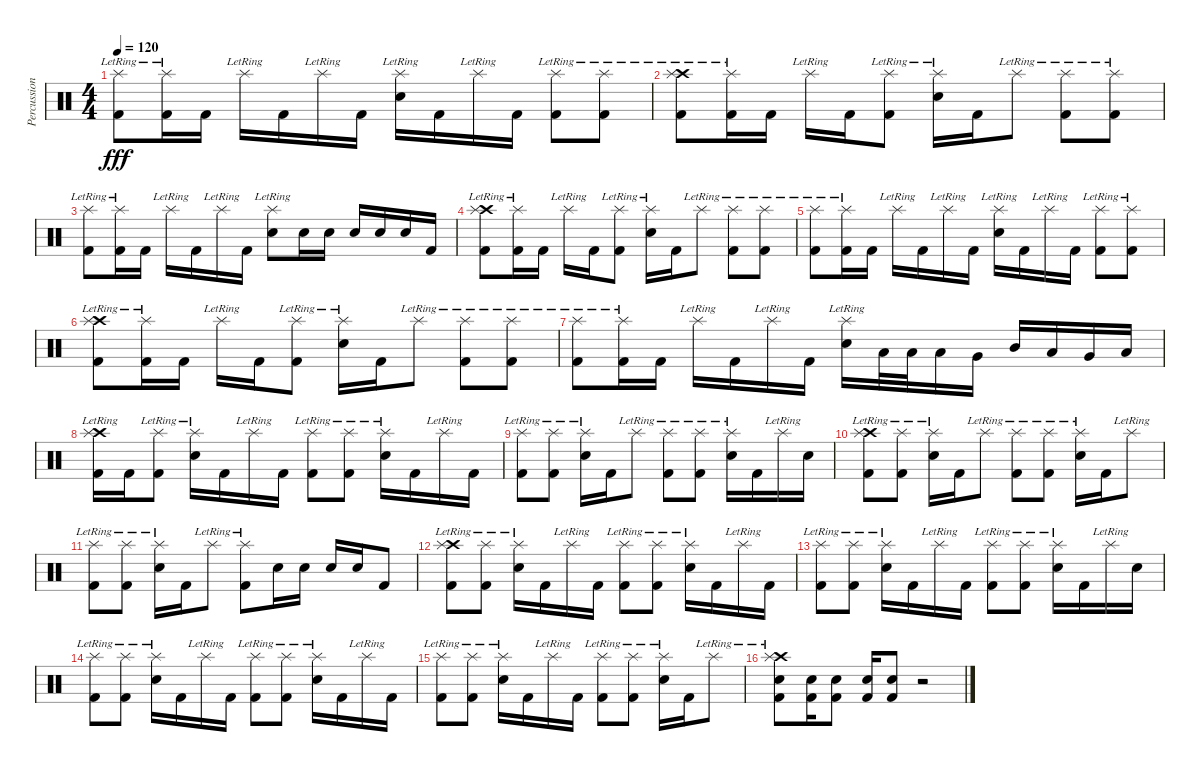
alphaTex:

\track ("Percussions" "Percussion") {instrument percussion}
\staff {score}
\articulation defaults
\ts (4 4)
\tempo 120
\clef neutral
\ks c
("Splash (hit)"{lr} "Kick (hit) 2").8{dy fff} ("Splash (hit)"{lr} "Kick (hit) 2").16 "Kick (hit) 2".16 "Splash (hit)"{lr}.16 "Kick (hit) 2".16 "Splash (hit)"{lr}.16 "Kick (hit) 2".16 ("Splash (hit)"{lr} "Electric Snare (hit)").16 "Kick (hit) 2".16 "Splash (hit)"{lr}.16 "Kick (hit) 2".16 ("Splash (hit)"{lr} "Kick (hit) 2").8 ("Splash (hit)"{lr} "Kick (hit) 2").8 |
("Crash high (hit)"{lr} "Splash (hit)"{lr} "Kick (hit) 2").8 ("Splash (hit)"{lr} "Kick (hit) 2").16 "Kick (hit) 2".16 "Splash (hit)"{lr}.16 "Kick (hit) 2".16 ("Splash (hit)"{lr} "Kick (hit) 2").8 ("Splash (hit)"{lr} "Electric Snare (hit)").16 "Kick (hit) 2".16 "Splash (hit)"{lr}.8 ("Splash (hit)"{lr} "Kick (hit) 2").8 ("Splash (hit)"{lr} "Kick (hit) 2").8 |
("Splash (hit)"{lr} "Kick (hit) 2").8 ("Splash (hit)"{lr} "Kick (hit) 2").16 "Kick (hit) 2".16 "Splash (hit)"{lr}.16 "Kick (hit) 2".16 "Splash (hit)"{lr}.16 "Kick (hit) 2".16 ("Splash (hit)"{lr} "Electric Snare (hit)").8 "Electric Snare (hit)".16 "Electric Snare (hit)".16 "Electric Snare (hit)".16 "Electric Snare (hit)".16 "Electric Snare (hit)".16 "Kick (hit) 2".16 |
("Crash high (hit)"{lr} "Splash (hit)"{lr} "Kick (hit) 2").8 ("Splash (hit)"{lr} "Kick (hit) 2").16 "Kick (hit) 2".16 "Splash (hit)"{lr}.16 "Kick (hit) 2".16 ("Splash (hit)"{lr} "Kick (hit) 2").8 ("Splash (hit)"{lr} "Electric Snare (hit)").16 "Kick (hit) 2".16 "Splash (hit)"{lr}.8 ("Splash (hit)"{lr} "Kick (hit) 2").8 ("Splash (hit)"{lr} "Kick (hit) 2").8 |
("Splash (hit)"{lr} "Kick (hit) 2").8 ("Splash (hit)"{lr} "Kick (hit) 2").16 "Kick (hit) 2".16 "Splash (hit)"{lr}.16 "Kick (hit) 2".16 "Splash (hit)"{lr}.16 "Kick (hit) 2".16 ("Splash (hit)"{lr} "Electric Snare (hit)").16 "Kick (hit) 2".16 "Splash (hit)"{lr}.16 "Kick (hit) 2".16 ("Splash (hit)"{lr} "Kick (hit) 2").8 ("Splash (hit)"{lr} "Kick (hit) 2").8 |
("Crash high (hit)"{lr} "Splash (hit)"{lr} "Kick (hit) 2").8 ("Splash (hit)"{lr} "Kick (hit) 2").16 "Kick (hit) 2".16 "Splash (hit)"{lr}.16 "Kick (hit) 2".16 ("Splash (hit)"{lr} "Kick (hit) 2").8 ("Splash (hit)"{lr} "Electric Snare (hit)").16 "Kick (hit) 2".16 "Splash (hit)"{lr}.8 ("Splash (hit)"{lr} "Kick (hit) 2").8 ("Splash (hit)"{lr} "Kick (hit) 2").8 |
("Splash (hit)"{lr} "Kick (hit) 2").8 ("Splash (hit)"{lr} "Kick (hit) 2").16 "Kick (hit) 2".16 "Splash (hit)"{lr}.16 "Kick (hit) 2".16 "Splash (hit)"{lr}.16 "Kick (hit) 2".16 ("Splash (hit)"{lr} "Electric Snare (hit)").16 "Low Tom (hit)".32 "Low Tom (hit)".32 "Low Tom (hit)".16 "Very Low Tom (hit)".16 "Mid Tom (hit)".16 "Low Tom (hit)".16 "Very Low Tom (hit)".16 "Low Floor Tom (hit)".16 |
("Crash high (hit)"{lr} "Splash (hit)"{lr} "Kick (hit) 2").16 "Kick (hit) 2".16 ("Splash (hit)"{lr} "Kick (hit) 2").8 ("Splash (hit)"{lr} "Electric Snare (hit)").16 "Kick (hit) 2".16 "Splash (hit)"{lr}.16 "Kick (hit) 2".16 ("Splash (hit)"{lr} "Kick (hit) 2").8 ("Splash (hit)"{lr} "Kick (hit) 2").8 ("Splash (hit)"{lr} "Electric Snare (hit)").16 "Kick (hit) 2".16 "Splash (hit)"{lr}.16 "Kick (hit) 2".16 |
("Splash (hit)"{lr} "Kick (hit) 2").8 ("Splash (hit)"{lr} "Kick (hit) 2").8 ("Splash (hit)"{lr} "Electric Snare (hit)").16 "Kick (hit) 2".16 "Splash (hit)"{lr}.8 ("Splash (hit)"{lr} "Kick (hit) 2").8 ("Splash (hit)"{lr} "Kick (hit) 2").8 ("Splash (hit)"{lr} "Electric Snare (hit)").16 "Kick (hit) 2".16 "Splash (hit)"{lr}.16 "Electric Snare (hit)".16 |
("Crash high (hit)"{lr} "Splash (hit)"{lr} "Kick (hit) 2").8 ("Splash (hit)"{lr} "Kick (hit) 2").8 ("Splash (hit)"{lr} "Electric Snare (hit)").16 "Kick (hit) 2".16 "Splash (hit)"{lr}.8 ("Splash (hit)"{lr} "Kick (hit) 2").8 ("Splash (hit)"{lr} "Kick (hit) 2").8 ("Splash (hit)"{lr} "Electric Snare (hit)").16 "Kick (hit) 2".16 "Splash (hit)"{lr}.8 |
("Splash (hit)"{lr} "Kick (hit) 2").8 ("Splash (hit)"{lr} "Kick (hit) 2").8 ("Splash (hit)"{lr} "Electric Snare (hit)").16 "Kick (hit) 2".16 "Splash (hit)"{lr}.8 ("Splash (hit)"{lr} "Kick (hit) 2").8 "Electric Snare (hit)".16 "Electric Snare (hit)".16 "Electric Snare (hit)".16 "Electric Snare (hit)".16 "Kick (hit) 2".8 |
("Crash high (hit)"{lr} "Splash (hit)"{lr} "Kick (hit) 2").8 ("Splash (hit)"{lr} "Kick (hit) 2").8 ("Splash (hit)"{lr} "Electric Snare (hit)").16 "Kick (hit) 2".16 "Splash (hit)"{lr}.16 "Kick (hit) 2".16 ("Splash (hit)"{lr} "Kick (hit) 2").8 ("Splash (hit)"{lr} "Kick (hit) 2").8 ("Splash (hit)"{lr} "Electric Snare (hit)").16 "Kick (hit) 2".16 "Splash (hit)"{lr}.16 "Kick (hit) 2".16 |
("Splash (hit)"{lr} "Kick (hit) 2").8 ("Splash (hit)"{lr} "Kick (hit) 2").8 ("Splash (hit)"{lr} "Electric Snare (hit)").16 "Kick (hit) 2".16 "Splash (hit)"{lr}.16 "Kick (hit) 2".16 ("Splash (hit)"{lr} "Kick (hit) 2").8 ("Splash (hit)"{lr} "Kick (hit) 2").8 ("Splash (hit)"{lr} "Electric Snare (hit)").16 "Kick (hit) 2".16 "Splash (hit)"{lr}.16 "Electric Snare (hit)".16 |
("Splash (hit)"{lr} "Kick (hit) 2").8 ("Splash (hit)"{lr} "Kick (hit) 2").8 ("Splash (hit)"{lr} "Electric Snare (hit)").16 "Kick (hit) 2".16 "Splash (hit)"{lr}.16 "Kick (hit) 2".16 ("Splash (hit)"{lr} "Kick (hit) 2").8 ("Splash (hit)"{lr} "Kick (hit) 2").8 ("Splash (hit)"{lr} "Electric Snare (hit)").16 "Kick (hit) 2".16 "Splash (hit)"{lr}.16 "Kick (hit) 2".16 |
("Splash (hit)"{lr} "Kick (hit) 2").8 ("Splash (hit)"{lr} "Kick (hit) 2").8 ("Splash (hit)"{lr} "Electric Snare (hit)").16 "Kick (hit) 2".16 "Splash (hit)"{lr}.16 "Kick (hit) 2".16 ("Splash (hit)"{lr} "Kick (hit) 2").8 ("Splash (hit)"{lr} "Kick (hit) 2").8 ("Splash (hit)"{lr} "Electric Snare (hit)").16 "Kick (hit) 2".16 "Splash (hit)"{lr}.8 |
("Crash high (hit)"{lr} "Splash (hit)"{lr} "Electric Snare (hit)" "Kick (hit) 2").8 ("Electric Snare (hit)" "Kick (hit) 2").16 ("Electric Snare (hit)" "Kick (hit) 2").8 ("Electric Snare (hit)" "Kick (hit) 2").16 ("Electric Snare (hit)" "Kick (hit) 2").8 r.2
